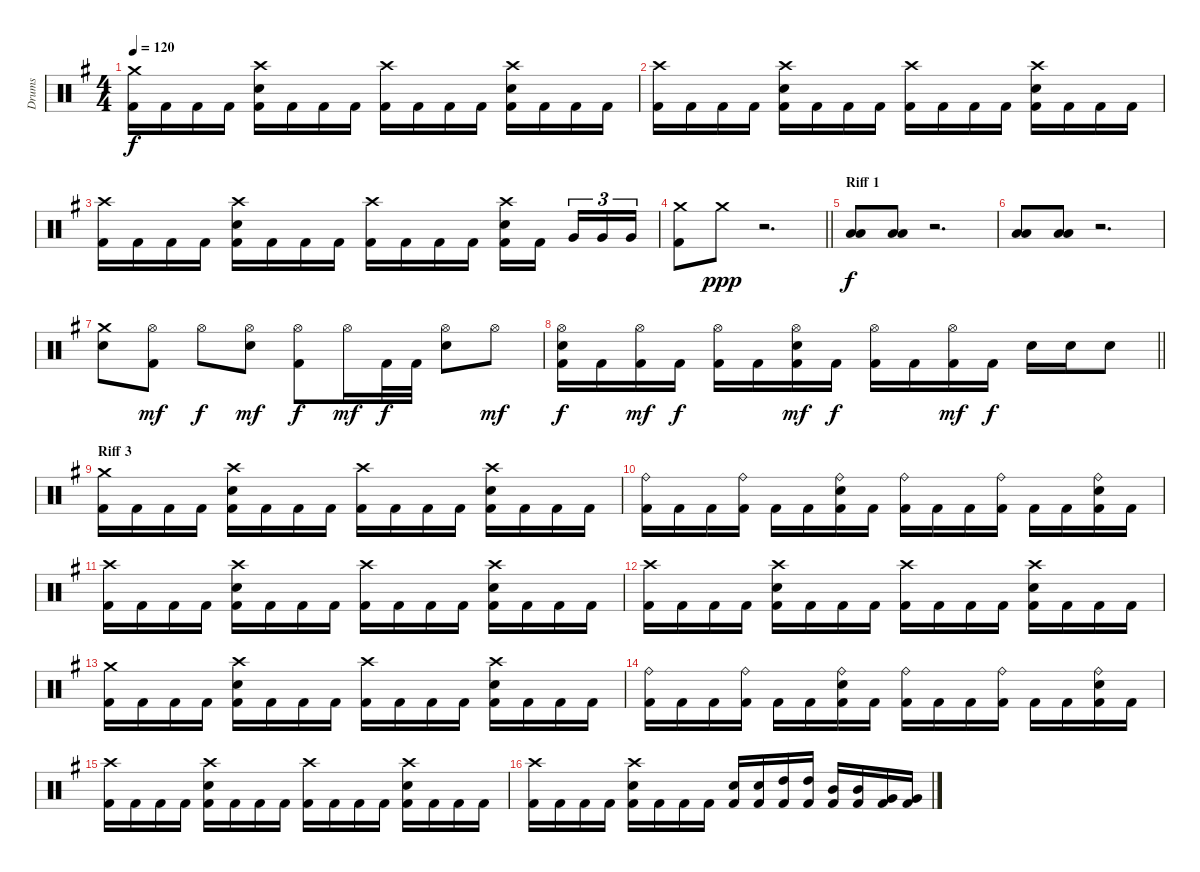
\track ("Drums" "Drums") {instrument percussion}
\staff {score}
\articulation defaults
\ts (4 4)
\tempo 120
\clef neutral
\ks eminor
("Kick (hit) 2" "Crash medium (hit)").16{dy f} "Kick (hit) 2".16 "Kick (hit) 2".16 "Kick (hit) 2".16 ("Kick (hit) 2" "Electric Snare (hit)" "Crash high (hit)").16 "Kick (hit) 2".16 "Kick (hit) 2".16 "Kick (hit) 2".16 ("Kick (hit) 2" "Crash high (hit)").16 "Kick (hit) 2".16 "Kick (hit) 2".16 "Kick (hit) 2".16 ("Kick (hit) 2" "Electric Snare (hit)" "Crash high (hit)").16 "Kick (hit) 2".16 "Kick (hit) 2".16 "Kick (hit) 2".16 |
("Kick (hit) 2" "Crash high (hit)").16 "Kick (hit) 2".16 "Kick (hit) 2".16 "Kick (hit) 2".16 ("Kick (hit) 2" "Electric Snare (hit)" "Crash high (hit)").16 "Kick (hit) 2".16 "Kick (hit) 2".16 "Kick (hit) 2".16 ("Kick (hit) 2" "Crash high (hit)").16 "Kick (hit) 2".16 "Kick (hit) 2".16 "Kick (hit) 2".16 ("Kick (hit) 2" "Electric Snare (hit)" "Crash high (hit)").16 "Kick (hit) 2".16 "Kick (hit) 2".16 "Kick (hit) 2".16 |
("Kick (hit) 2" "Crash high (hit)").16 "Kick (hit) 2".16 "Kick (hit) 2".16 "Kick (hit) 2".16 ("Kick (hit) 2" "Electric Snare (hit)" "Crash high (hit)").16 "Kick (hit) 2".16 "Kick (hit) 2".16 "Kick (hit) 2".16 ("Kick (hit) 2" "Crash high (hit)").16 "Kick (hit) 2".16 "Kick (hit) 2".16 "Kick (hit) 2".16 ("Kick (hit) 2" "Electric Snare (hit)" "Crash high (hit)").16 "Kick (hit) 2".16{beam splitsecondary} "Very Low Tom (hit)".16{tu (3 2)} "Very Low Tom (hit)".16{tu (3 2)} "Very Low Tom (hit)".16{tu (3 2)} |
\barLineRight lightlight
("Crash medium (hit)" "Kick (hit) 2").8 "Crash medium (hit)".8{dy ppp} r.2{d} |
\section ("" "Riff 1")
("Low Tom (hit)" "Low Floor Tom (hit)").8{dy f} ("Low Tom (hit)" "Low Floor Tom (hit)").8 r.2{d} |
("Low Tom (hit)" "Low Floor Tom (hit)").8 ("Low Tom (hit)" "Low Floor Tom (hit)").8 r.2{d} |
("Crash medium (hit)" "Electric Snare (hit)").8 ("Hi-Hat (open)" "Kick (hit) 2").8{dy mf} "Hi-Hat (open)".8{dy f} ("Hi-Hat (open)" "Electric Snare (hit)").8{dy mf} ("Hi-Hat (open)" "Kick (hit) 2").8{dy f} "Hi-Hat (open)".16{dy mf} "Kick (hit) 2".32{dy f} "Kick (hit) 2".32 ("Electric Snare (hit)" "Hi-Hat (open)").8 "Hi-Hat (open)".8{dy mf} |
\barLineRight lightlight
("Hi-Hat (open)" "Kick (hit) 2" "Electric Snare (hit)").16{dy f} "Kick (hit) 2".16 ("Hi-Hat (open)" "Kick (hit) 2").16{dy mf} "Kick (hit) 2".16{dy f} ("Hi-Hat (open)" "Kick (hit) 2").16 "Kick (hit) 2".16 ("Hi-Hat (open)" "Kick (hit) 2" "Electric Snare (hit)").16{dy mf} "Kick (hit) 2".16{dy f} ("Hi-Hat (open)" "Kick (hit) 2").16 "Kick (hit) 2".16 ("Hi-Hat (open)" "Kick (hit) 2").16{dy mf} "Kick (hit) 2".16{dy f} "Electric Snare (hit)".16 "Electric Snare (hit)".16 "Electric Snare (hit)".8 |
\section ("" "Riff 3")
("Kick (hit) 2" "Crash medium (hit)").16 "Kick (hit) 2".16 "Kick (hit) 2".16 "Kick (hit) 2".16 ("Kick (hit) 2" "Electric Snare (hit)" "Crash high (hit)").16 "Kick (hit) 2".16 "Kick (hit) 2".16 "Kick (hit) 2".16 ("Kick (hit) 2" "Crash high (hit)").16 "Kick (hit) 2".16 "Kick (hit) 2".16 "Kick (hit) 2".16 ("Kick (hit) 2" "Crash high (hit)" "Electric Snare (hit)").16 "Kick (hit) 2".16 "Kick (hit) 2".16 "Kick (hit) 2".16 |
("Kick (hit) 2" "Ride (bell)").16 "Kick (hit) 2".16 "Kick (hit) 2".16 ("Kick (hit) 2" "Ride (bell)").16 "Kick (hit) 2".16 "Kick (hit) 2".16 ("Kick (hit) 2" "Electric Snare (hit)" "Ride (bell)").16 "Kick (hit) 2".16 ("Kick (hit) 2" "Ride (bell)").16 "Kick (hit) 2".16 "Kick (hit) 2".16 ("Kick (hit) 2" "Ride (bell)").16 "Kick (hit) 2".16 "Kick (hit) 2".16 ("Kick (hit) 2" "Electric Snare (hit)" "Ride (bell)").16 "Kick (hit) 2".16 |
("Kick (hit) 2" "Crash high (hit)").16 "Kick (hit) 2".16 "Kick (hit) 2".16 "Kick (hit) 2".16 ("Kick (hit) 2" "Electric Snare (hit)" "Crash high (hit)").16 "Kick (hit) 2".16 "Kick (hit) 2".16 "Kick (hit) 2".16 ("Kick (hit) 2" "Crash high (hit)").16 "Kick (hit) 2".16 "Kick (hit) 2".16 "Kick (hit) 2".16 ("Kick (hit) 2" "Crash high (hit)" "Electric Snare (hit)").16 "Kick (hit) 2".16 "Kick (hit) 2".16 "Kick (hit) 2".16 |
("Kick (hit) 2" "Crash high (hit)").16 "Kick (hit) 2".16 "Kick (hit) 2".16 "Kick (hit) 2".16 ("Kick (hit) 2" "Electric Snare (hit)" "Crash high (hit)").16 "Kick (hit) 2".16 "Kick (hit) 2".16 "Kick (hit) 2".16 ("Kick (hit) 2" "Crash high (hit)").16 "Kick (hit) 2".16 "Kick (hit) 2".16 "Kick (hit) 2".16 ("Kick (hit) 2" "Crash high (hit)" "Electric Snare (hit)").16 "Kick (hit) 2".16 "Kick (hit) 2".16 "Kick (hit) 2".16 |
("Kick (hit) 2" "Crash medium (hit)").16 "Kick (hit) 2".16 "Kick (hit) 2".16 "Kick (hit) 2".16 ("Kick (hit) 2" "Electric Snare (hit)" "Crash high (hit)").16 "Kick (hit) 2".16 "Kick (hit) 2".16 "Kick (hit) 2".16 ("Kick (hit) 2" "Crash high (hit)").16 "Kick (hit) 2".16 "Kick (hit) 2".16 "Kick (hit) 2".16 ("Kick (hit) 2" "Crash high (hit)" "Electric Snare (hit)").16 "Kick (hit) 2".16 "Kick (hit) 2".16 "Kick (hit) 2".16 |
("Kick (hit) 2" "Ride (bell)").16 "Kick (hit) 2".16 "Kick (hit) 2".16 ("Kick (hit) 2" "Ride (bell)").16 "Kick (hit) 2".16 "Kick (hit) 2".16 ("Kick (hit) 2" "Electric Snare (hit)" "Ride (bell)").16 "Kick (hit) 2".16 ("Kick (hit) 2" "Ride (bell)").16 "Kick (hit) 2".16 "Kick (hit) 2".16 ("Kick (hit) 2" "Ride (bell)").16 "Kick (hit) 2".16 "Kick (hit) 2".16 ("Kick (hit) 2" "Electric Snare (hit)" "Ride (bell)").16 "Kick (hit) 2".16 |
("Kick (hit) 2" "Crash high (hit)").16 "Kick (hit) 2".16 "Kick (hit) 2".16 "Kick (hit) 2".16 ("Kick (hit) 2" "Electric Snare (hit)" "Crash high (hit)").16 "Kick (hit) 2".16 "Kick (hit) 2".16 "Kick (hit) 2".16 ("Kick (hit) 2" "Crash high (hit)").16 "Kick (hit) 2".16 "Kick (hit) 2".16 "Kick (hit) 2".16 ("Kick (hit) 2" "Crash high (hit)" "Electric Snare (hit)").16 "Kick (hit) 2".16 "Kick (hit) 2".16 "Kick (hit) 2".16 |
("Kick (hit) 2" "Crash high (hit)").16 "Kick (hit) 2".16 "Kick (hit) 2".16 "Kick (hit) 2".16 ("Kick (hit) 2" "Electric Snare (hit)" "Crash high (hit)").16 "Kick (hit) 2".16 "Kick (hit) 2".16 "Kick (hit) 2".16 ("Kick (hit) 2" "Electric Snare (hit)").16 ("Kick (hit) 2" "Electric Snare (hit)").16 ("Kick (hit) 2" "High Tom (hit)").16 ("Kick (hit) 2" "High Tom (hit)").16 ("Kick (hit) 2" "Mid Tom (hit)").16 ("Kick (hit) 2" "Mid Tom (hit)").16 ("Kick (hit) 2" "Very Low Tom (hit)").16 ("Kick (hit) 2" "Very Low Tom (hit)").16
